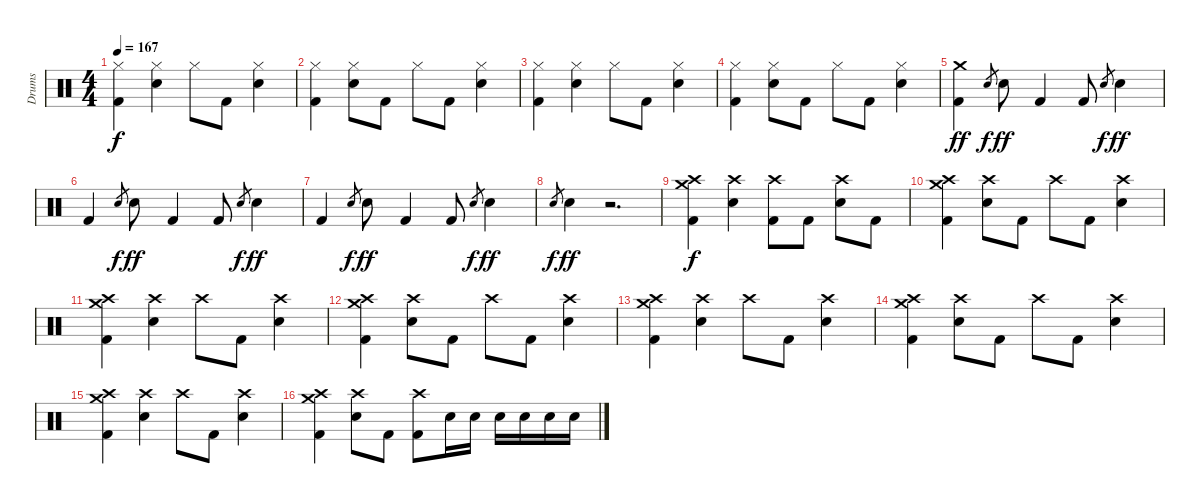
\track ("Drums" "Drums") {instrument percussion}
\staff {score}
\articulation defaults
\ts (4 4)
\tempo 167
\clef neutral
\ks c
("Kick (hit) 2" "Hi-Hat (closed)").4{dy f} ("Hi-Hat (closed)" "Snare (hit) 2").4 "Hi-Hat (closed)".8 "Kick (hit) 2".8 ("Hi-Hat (closed)" "Snare (hit) 2").4 |
("Hi-Hat (closed)" "Kick (hit) 2").4 ("Hi-Hat (closed)" "Snare (hit) 2").8 "Kick (hit) 2".8 "Hi-Hat (closed)".8 "Kick (hit) 2".8 ("Hi-Hat (closed)" "Snare (hit) 2").4 |
("Kick (hit) 2" "Hi-Hat (closed)").4 ("Hi-Hat (closed)" "Snare (hit) 2").4 "Hi-Hat (closed)".8 "Kick (hit) 2".8 ("Hi-Hat (closed)" "Snare (hit) 2").4 |
("Hi-Hat (closed)" "Kick (hit) 2").4 ("Hi-Hat (closed)" "Snare (hit) 2").8 "Kick (hit) 2".8 "Hi-Hat (closed)".8 "Kick (hit) 2".8 ("Hi-Hat (closed)" "Snare (hit) 2").4 |
("Kick (hit) 2" "Crash medium (hit)").4{dy ff} "Snare (hit) 2".8{gr dy f} "Snare (hit) 2".8{dy ff} "Kick (hit) 2".4 "Kick (hit) 2".8 "Snare (hit) 2".8{gr dy f} "Snare (hit) 2".4{dy ff} |
"Kick (hit) 2".4 "Snare (hit) 2".8{gr dy f} "Snare (hit) 2".8{dy ff} "Kick (hit) 2".4 "Kick (hit) 2".8 "Snare (hit) 2".8{gr dy f} "Snare (hit) 2".4{dy ff} |
"Kick (hit) 2".4 "Snare (hit) 2".8{gr dy f} "Snare (hit) 2".8{dy ff} "Kick (hit) 2".4 "Kick (hit) 2".8 "Snare (hit) 2".8{gr dy f} "Snare (hit) 2".4{dy ff} |
"Snare (hit) 2".8{gr dy f} "Snare (hit) 2".4{dy ff} r.2{d} |
("Crash medium (hit)" "Crash high (hit)" "Kick (hit) 2").4{dy f} ("Crash high (hit)" "Snare (hit) 2").4 ("Crash high (hit)" "Kick (hit) 2").8 "Kick (hit) 2".8 ("Crash high (hit)" "Snare (hit) 2").8 "Kick (hit) 2".8 |
("Crash medium (hit)" "Crash high (hit)" "Kick (hit) 2").4 ("Crash high (hit)" "Snare (hit) 2").8 "Kick (hit) 2".8 "Crash high (hit)".8 "Kick (hit) 2".8 ("Crash high (hit)" "Snare (hit) 2").4 |
("Crash medium (hit)" "Crash high (hit)" "Kick (hit) 2").4 ("Crash high (hit)" "Snare (hit) 2").4 "Crash high (hit)".8 "Kick (hit) 2".8 ("Crash high (hit)" "Snare (hit) 2").4 |
("Crash medium (hit)" "Crash high (hit)" "Kick (hit) 2").4 ("Crash high (hit)" "Snare (hit) 2").8 "Kick (hit) 2".8 "Crash high (hit)".8 "Kick (hit) 2".8 ("Crash high (hit)" "Snare (hit) 2").4 |
("Crash medium (hit)" "Crash high (hit)" "Kick (hit) 2").4 ("Crash high (hit)" "Snare (hit) 2").4 "Crash high (hit)".8 "Kick (hit) 2".8 ("Crash high (hit)" "Snare (hit) 2").4 |
("Crash medium (hit)" "Crash high (hit)" "Kick (hit) 2").4 ("Crash high (hit)" "Snare (hit) 2").8 "Kick (hit) 2".8 "Crash high (hit)".8 "Kick (hit) 2".8 ("Crash high (hit)" "Snare (hit) 2").4 |
("Crash medium (hit)" "Crash high (hit)" "Kick (hit) 2").4 ("Crash high (hit)" "Snare (hit) 2").4 "Crash high (hit)".8 "Kick (hit) 2".8 ("Crash high (hit)" "Snare (hit) 2").4 |
("Crash medium (hit)" "Crash high (hit)" "Kick (hit) 2").4 ("Crash high (hit)" "Snare (hit) 2").8 "Kick (hit) 2".8 ("Crash high (hit)" "Kick (hit) 2").8 "Snare (hit) 2".16 "Snare (hit) 2".16 "Snare (hit) 2".16 "Snare (hit) 2".16 "Snare (hit) 2".16 "Snare (hit) 2".16
